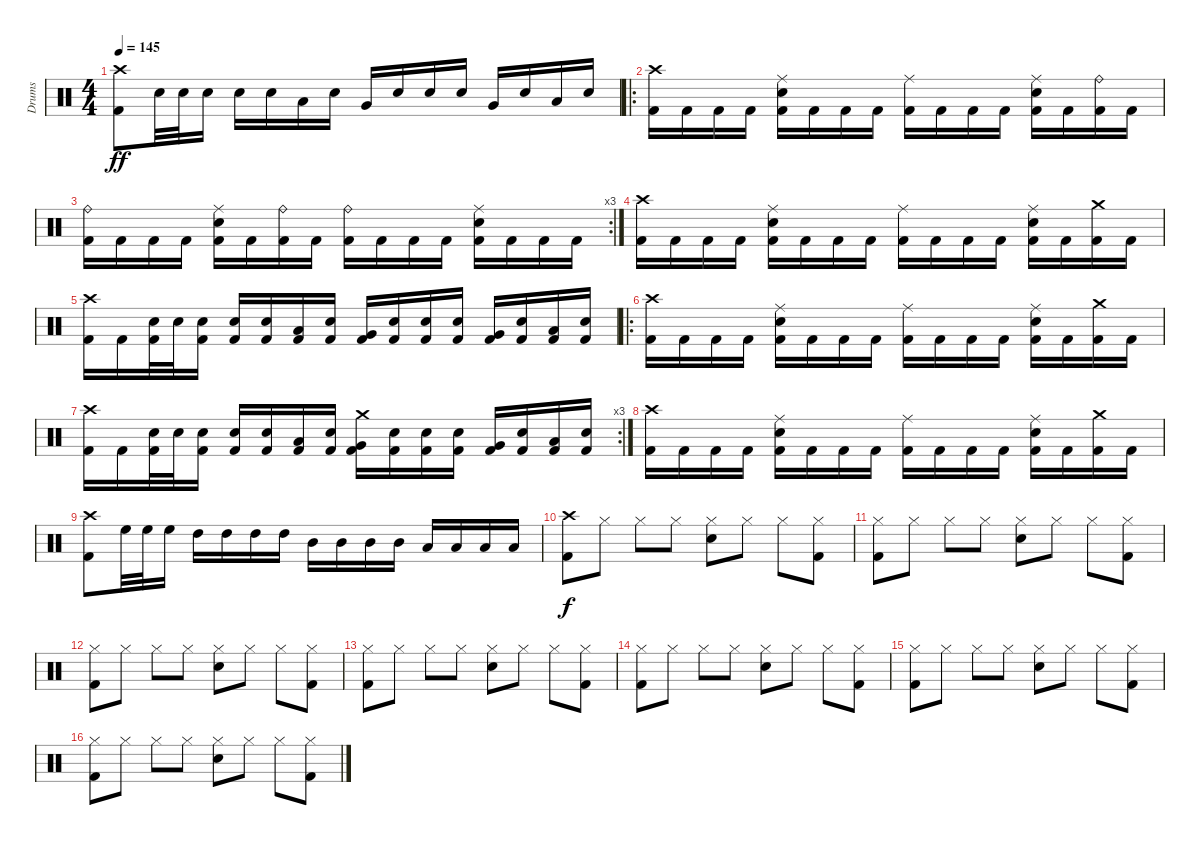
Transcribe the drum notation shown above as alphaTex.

\track ("Drums" "Drums") {instrument percussion}
\staff {score}
\articulation defaults
\ts (4 4)
\tempo 145
\clef neutral
\ks c
("Crash high (hit)" "Kick (hit) 2").8{dy ff} "Electric Snare (hit)".32 "Electric Snare (hit)".32 "Electric Snare (hit)".16 "Electric Snare (hit)".16 "Electric Snare (hit)".16 "Low Tom (hit)".16 "Electric Snare (hit)".16 "Very Low Tom (hit)".16 "Electric Snare (hit)".16 "Electric Snare (hit)".16 "Electric Snare (hit)".16 "Very Low Tom (hit)".16 "Electric Snare (hit)".16 "Low Floor Tom (hit)".16 "Electric Snare (hit)".16 |
\ro
("Crash high (hit)" "Kick (hit) 2").16 "Kick (hit) 2".16 "Kick (hit) 2".16 "Kick (hit) 2".16 ("Ride (middle)" "Electric Snare (hit)" "Kick (hit) 2").16 "Kick (hit) 2".16 "Kick (hit) 2".16 "Kick (hit) 2".16 ("Ride (middle)" "Kick (hit) 2").16 "Kick (hit) 2".16 "Kick (hit) 2".16 "Kick (hit) 2".16 ("Ride (middle)" "Electric Snare (hit)" "Kick (hit) 2").16 "Kick (hit) 2".16 ("Ride (bell)" "Kick (hit) 2").16 "Kick (hit) 2".16 |
\rc 3
("Ride (bell)" "Kick (hit) 2").16 "Kick (hit) 2".16 "Kick (hit) 2".16 "Kick (hit) 2".16 ("Ride (middle)" "Electric Snare (hit)" "Kick (hit) 2").16 "Kick (hit) 2".16 ("Ride (bell)" "Kick (hit) 2").16 "Kick (hit) 2".16 ("Ride (bell)" "Kick (hit) 2").16 "Kick (hit) 2".16 "Kick (hit) 2".16 "Kick (hit) 2".16 ("Ride (middle)" "Electric Snare (hit)" "Kick (hit) 2").16 "Kick (hit) 2".16 "Kick (hit) 2".16 "Kick (hit) 2".16 |
("Crash high (hit)" "Kick (hit) 2").16 "Kick (hit) 2".16 "Kick (hit) 2".16 "Kick (hit) 2".16 ("Ride (middle)" "Electric Snare (hit)" "Kick (hit) 2").16 "Kick (hit) 2".16 "Kick (hit) 2".16 "Kick (hit) 2".16 ("Ride (middle)" "Kick (hit) 2").16 "Kick (hit) 2".16 "Kick (hit) 2".16 "Kick (hit) 2".16 ("Ride (middle)" "Electric Snare (hit)" "Kick (hit) 2").16 "Kick (hit) 2".16 ("Crash medium (hit)" "Kick (hit) 2").16 "Kick (hit) 2".16 |
("Crash high (hit)" "Kick (hit) 2").16 "Kick (hit) 2".16 ("Electric Snare (hit)" "Kick (hit) 2").32 "Electric Snare (hit)".32 ("Electric Snare (hit)" "Kick (hit) 2").16 ("Electric Snare (hit)" "Kick (hit) 2").16 ("Electric Snare (hit)" "Kick (hit) 2").16 ("Low Tom (hit)" "Kick (hit) 2").16 ("Electric Snare (hit)" "Kick (hit) 2").16 ("Very Low Tom (hit)" "Kick (hit) 2").16 ("Electric Snare (hit)" "Kick (hit) 2").16 ("Electric Snare (hit)" "Kick (hit) 2").16 ("Electric Snare (hit)" "Kick (hit) 2").16 ("Very Low Tom (hit)" "Kick (hit) 2").16 ("Electric Snare (hit)" "Kick (hit) 2").16 ("Low Floor Tom (hit)" "Kick (hit) 2").16 ("Electric Snare (hit)" "Kick (hit) 2").16 |
\ro
("Crash high (hit)" "Kick (hit) 2").16 "Kick (hit) 2".16 "Kick (hit) 2".16 "Kick (hit) 2".16 ("Ride (middle)" "Electric Snare (hit)" "Kick (hit) 2").16 "Kick (hit) 2".16 "Kick (hit) 2".16 "Kick (hit) 2".16 ("Ride (middle)" "Kick (hit) 2").16 "Kick (hit) 2".16 "Kick (hit) 2".16 "Kick (hit) 2".16 ("Ride (middle)" "Electric Snare (hit)" "Kick (hit) 2").16 "Kick (hit) 2".16 ("Crash medium (hit)" "Kick (hit) 2").16 "Kick (hit) 2".16 |
\rc 3
("Crash high (hit)" "Kick (hit) 2").16 "Kick (hit) 2".16 ("Electric Snare (hit)" "Kick (hit) 2").32 "Electric Snare (hit)".32 ("Electric Snare (hit)" "Kick (hit) 2").16 ("Electric Snare (hit)" "Kick (hit) 2").16 ("Electric Snare (hit)" "Kick (hit) 2").16 ("Low Tom (hit)" "Kick (hit) 2").16 ("Electric Snare (hit)" "Kick (hit) 2").16 ("Crash medium (hit)" "Very Low Tom (hit)" "Kick (hit) 2").16 ("Electric Snare (hit)" "Kick (hit) 2").16 ("Electric Snare (hit)" "Kick (hit) 2").16 ("Electric Snare (hit)" "Kick (hit) 2").16 ("Very Low Tom (hit)" "Kick (hit) 2").16 ("Electric Snare (hit)" "Kick (hit) 2").16 ("Low Floor Tom (hit)" "Kick (hit) 2").16 ("Electric Snare (hit)" "Kick (hit) 2").16 |
("Crash high (hit)" "Kick (hit) 2").16 "Kick (hit) 2".16 "Kick (hit) 2".16 "Kick (hit) 2".16 ("Ride (middle)" "Electric Snare (hit)" "Kick (hit) 2").16 "Kick (hit) 2".16 "Kick (hit) 2".16 "Kick (hit) 2".16 ("Ride (middle)" "Kick (hit) 2").16 "Kick (hit) 2".16 "Kick (hit) 2".16 "Kick (hit) 2".16 ("Ride (middle)" "Electric Snare (hit)" "Kick (hit) 2").16 "Kick (hit) 2".16 ("Crash medium (hit)" "Kick (hit) 2").16 "Kick (hit) 2".16 |
("Crash high (hit)" "Kick (hit) 2").8 "High Floor Tom (hit)".32 "High Floor Tom (hit)".32 "High Floor Tom (hit)".16 "High Tom (hit)".16 "High Tom (hit)".16 "High Tom (hit)".16 "High Tom (hit)".16 "Mid Tom (hit)".16 "Mid Tom (hit)".16 "Mid Tom (hit)".16 "Mid Tom (hit)".16 "Low Tom (hit)".16 "Low Tom (hit)".16 "Low Tom (hit)".16 "Low Tom (hit)".16 |
("Crash high (hit)" "Kick (hit) 2").8{dy f} "Hi-Hat (closed)".8 "Hi-Hat (closed)".8 "Hi-Hat (closed)".8 ("Hi-Hat (closed)" "Electric Snare (hit)").8 "Hi-Hat (closed)".8 "Hi-Hat (closed)".8 ("Hi-Hat (closed)" "Kick (hit) 2").8 |
("Hi-Hat (closed)" "Kick (hit) 2").8 "Hi-Hat (closed)".8 "Hi-Hat (closed)".8 "Hi-Hat (closed)".8 ("Hi-Hat (closed)" "Electric Snare (hit)").8 "Hi-Hat (closed)".8 "Hi-Hat (closed)".8 ("Hi-Hat (closed)" "Kick (hit) 2").8 |
("Hi-Hat (closed)" "Kick (hit) 2").8 "Hi-Hat (closed)".8 "Hi-Hat (closed)".8 "Hi-Hat (closed)".8 ("Hi-Hat (closed)" "Electric Snare (hit)").8 "Hi-Hat (closed)".8 "Hi-Hat (closed)".8 ("Hi-Hat (closed)" "Kick (hit) 2").8 |
("Hi-Hat (closed)" "Kick (hit) 2").8 "Hi-Hat (closed)".8 "Hi-Hat (closed)".8 "Hi-Hat (closed)".8 ("Hi-Hat (closed)" "Electric Snare (hit)").8 "Hi-Hat (closed)".8 "Hi-Hat (closed)".8 ("Hi-Hat (closed)" "Kick (hit) 2").8 |
("Hi-Hat (closed)" "Kick (hit) 2").8 "Hi-Hat (closed)".8 "Hi-Hat (closed)".8 "Hi-Hat (closed)".8 ("Hi-Hat (closed)" "Electric Snare (hit)").8 "Hi-Hat (closed)".8 "Hi-Hat (closed)".8 ("Hi-Hat (closed)" "Kick (hit) 2").8 |
("Hi-Hat (closed)" "Kick (hit) 2").8 "Hi-Hat (closed)".8 "Hi-Hat (closed)".8 "Hi-Hat (closed)".8 ("Hi-Hat (closed)" "Electric Snare (hit)").8 "Hi-Hat (closed)".8 "Hi-Hat (closed)".8 ("Hi-Hat (closed)" "Kick (hit) 2").8 |
("Hi-Hat (closed)" "Kick (hit) 2").8 "Hi-Hat (closed)".8 "Hi-Hat (closed)".8 "Hi-Hat (closed)".8 ("Hi-Hat (closed)" "Electric Snare (hit)").8 "Hi-Hat (closed)".8 "Hi-Hat (closed)".8 ("Hi-Hat (closed)" "Kick (hit) 2").8
